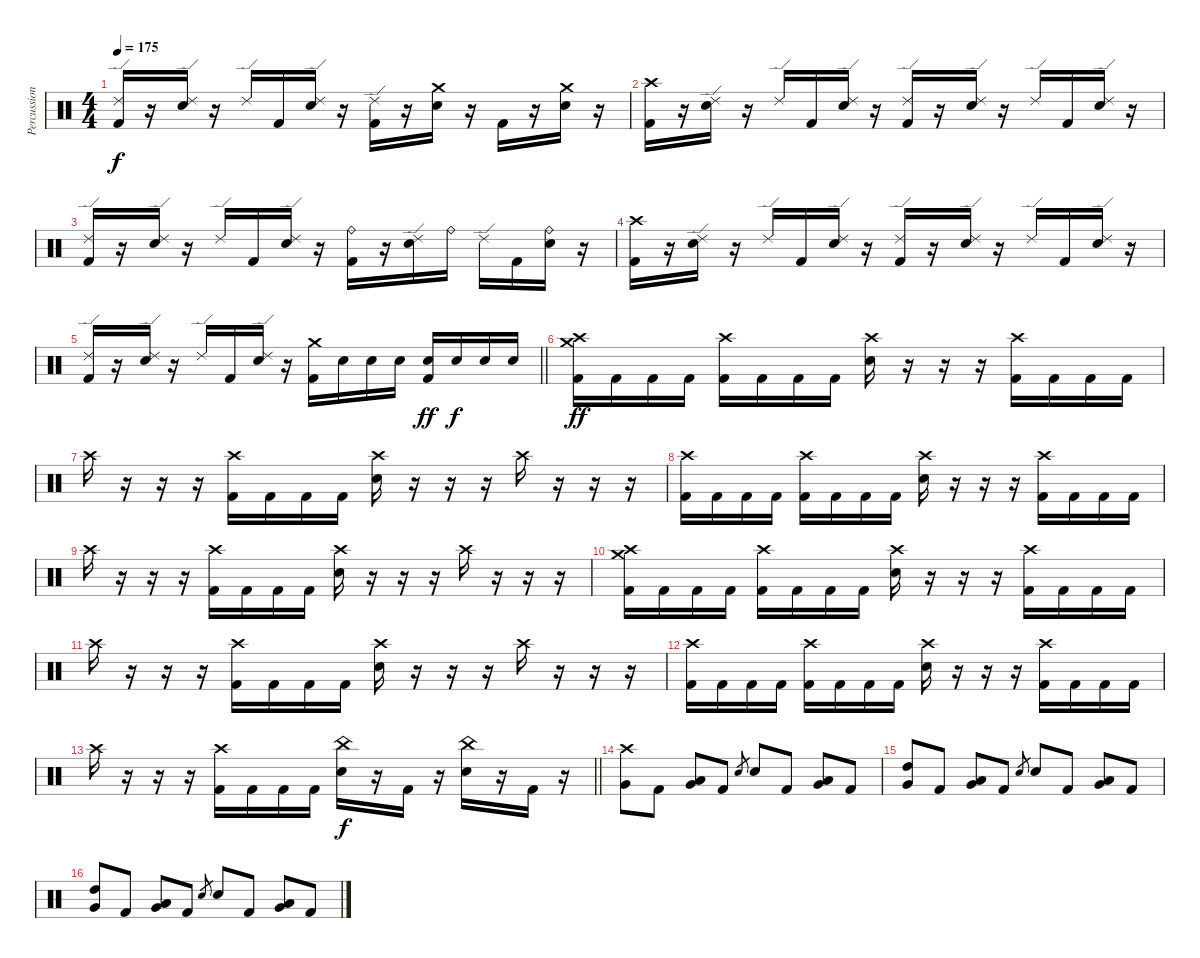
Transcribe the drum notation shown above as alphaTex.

\track ("Percussion" "Percussion") {instrument percussion}
\staff {score}
\articulation defaults
\ts (4 4)
\tempo 175
\clef neutral
\ks c
("Ride (edge) 2" "Kick (hit) 2").16{dy f} r.16 ("Ride (edge) 2" "Snare (hit) 2").16 r.16 "Ride (edge) 2".16 "Kick (hit) 2".16 ("Ride (edge) 2" "Snare (hit) 2").16 r.16 ("Ride (edge) 2" "Kick (hit) 2").16 r.16 ("Crash medium (hit)" "Snare (hit) 2").16 r.16 "Kick (hit) 2".16 r.16 ("Crash medium (hit)" "Snare (hit) 2").16 r.16 |
("Crash high (hit)" "Kick (hit) 2").16 r.16 ("Ride (edge) 2" "Snare (hit) 2").16 r.16 "Ride (edge) 2".16 "Kick (hit) 2".16 ("Ride (edge) 2" "Snare (hit) 2").16 r.16 ("Ride (edge) 2" "Kick (hit) 2").16 r.16 ("Ride (edge) 2" "Snare (hit) 2").16 r.16 "Ride (edge) 2".16 "Kick (hit) 2".16 ("Ride (edge) 2" "Snare (hit) 2").16 r.16 |
("Ride (edge) 2" "Kick (hit) 2").16 r.16 ("Ride (edge) 2" "Snare (hit) 2").16 r.16 "Ride (edge) 2".16 "Kick (hit) 2".16 ("Ride (edge) 2" "Snare (hit) 2").16 r.16 ("Ride (bell)" "Kick (hit) 2").16 r.16 ("Ride (edge) 2" "Snare (hit) 2").16 "Ride (bell)".16 "Ride (edge) 2".16 "Kick (hit) 2".16 ("Ride (bell)" "Snare (hit) 2").16 r.16 |
("Crash high (hit)" "Kick (hit) 2").16 r.16 ("Ride (edge) 2" "Snare (hit) 2").16 r.16 "Ride (edge) 2".16 "Kick (hit) 2".16 ("Ride (edge) 2" "Snare (hit) 2").16 r.16 ("Ride (edge) 2" "Kick (hit) 2").16 r.16 ("Ride (edge) 2" "Snare (hit) 2").16 r.16 "Ride (edge) 2".16 "Kick (hit) 2".16 ("Ride (edge) 2" "Snare (hit) 2").16 r.16 |
\barLineRight lightlight
("Ride (edge) 2" "Kick (hit) 2").16 r.16 ("Ride (edge) 2" "Snare (hit) 2").16 r.16 "Ride (edge) 2".16 "Kick (hit) 2".16 ("Ride (edge) 2" "Snare (hit) 2").16 r.16 ("Crash medium (hit)" "Kick (hit) 2").16 "Snare (hit) 2".16 "Snare (hit) 2".16 "Snare (hit) 2".16 ("Snare (hit) 2" "Kick (hit) 2").16{dy ff} "Snare (hit) 2".16{dy f} "Snare (hit) 2".16 "Snare (hit) 2".16 |
\section ("" "")
("Crash high (hit)" "Crash medium (hit)" "Kick (hit) 2").16{dy ff} "Kick (hit) 2".16 "Kick (hit) 2".16 "Kick (hit) 2".16 ("Crash high (hit)" "Kick (hit) 2").16 "Kick (hit) 2".16 "Kick (hit) 2".16 "Kick (hit) 2".16 ("Crash high (hit)" "Snare (hit) 2").16 r.16 r.16 r.16 ("Crash high (hit)" "Kick (hit) 2").16 "Kick (hit) 2".16 "Kick (hit) 2".16 "Kick (hit) 2".16 |
"Crash high (hit)".16 r.16 r.16 r.16 ("Crash high (hit)" "Kick (hit) 2").16 "Kick (hit) 2".16 "Kick (hit) 2".16 "Kick (hit) 2".16 ("Crash high (hit)" "Snare (hit) 2").16 r.16 r.16 r.16 "Crash high (hit)".16 r.16 r.16 r.16 |
("Crash high (hit)" "Kick (hit) 2").16 "Kick (hit) 2".16 "Kick (hit) 2".16 "Kick (hit) 2".16 ("Crash high (hit)" "Kick (hit) 2").16 "Kick (hit) 2".16 "Kick (hit) 2".16 "Kick (hit) 2".16 ("Crash high (hit)" "Snare (hit) 2").16 r.16 r.16 r.16 ("Crash high (hit)" "Kick (hit) 2").16 "Kick (hit) 2".16 "Kick (hit) 2".16 "Kick (hit) 2".16 |
"Crash high (hit)".16 r.16 r.16 r.16 ("Crash high (hit)" "Kick (hit) 2").16 "Kick (hit) 2".16 "Kick (hit) 2".16 "Kick (hit) 2".16 ("Crash high (hit)" "Snare (hit) 2").16 r.16 r.16 r.16 "Crash high (hit)".16 r.16 r.16 r.16 |
("Crash high (hit)" "Crash medium (hit)" "Kick (hit) 2").16 "Kick (hit) 2".16 "Kick (hit) 2".16 "Kick (hit) 2".16 ("Crash high (hit)" "Kick (hit) 2").16 "Kick (hit) 2".16 "Kick (hit) 2".16 "Kick (hit) 2".16 ("Crash high (hit)" "Snare (hit) 2").16 r.16 r.16 r.16 ("Crash high (hit)" "Kick (hit) 2").16 "Kick (hit) 2".16 "Kick (hit) 2".16 "Kick (hit) 2".16 |
"Crash high (hit)".16 r.16 r.16 r.16 ("Crash high (hit)" "Kick (hit) 2").16 "Kick (hit) 2".16 "Kick (hit) 2".16 "Kick (hit) 2".16 ("Crash high (hit)" "Snare (hit) 2").16 r.16 r.16 r.16 "Crash high (hit)".16 r.16 r.16 r.16 |
("Crash high (hit)" "Kick (hit) 2").16 "Kick (hit) 2".16 "Kick (hit) 2".16 "Kick (hit) 2".16 ("Crash high (hit)" "Kick (hit) 2").16 "Kick (hit) 2".16 "Kick (hit) 2".16 "Kick (hit) 2".16 ("Crash high (hit)" "Snare (hit) 2").16 r.16 r.16 r.16 ("Crash high (hit)" "Kick (hit) 2").16 "Kick (hit) 2".16 "Kick (hit) 2".16 "Kick (hit) 2".16 |
\barLineRight lightlight "Crash high (hit)".16
r.16 r.16 r.16 ("Crash high (hit)" "Kick (hit) 2").16 "Kick (hit) 2".16 "Kick (hit) 2".16 "Kick (hit) 2".16 ("China (hit)" "Snare (hit) 2").16{dy f} r.16 "Kick (hit) 2".16 r.16 ("China (hit)" "Snare (hit) 2").16 r.16 "Kick (hit) 2".16 r.16 |
\section ("" "")
("Crash high (hit)" "Very Low Tom (hit)").8 "Kick (hit) 2".8 ("Low Tom (hit)" "Very Low Tom (hit)").8 "Kick (hit) 2".8 "Snare (hit) 2".8{gr} "Snare (hit) 2".8 "Kick (hit) 2".8 ("Low Tom (hit)" "Very Low Tom (hit)").8 "Kick (hit) 2".8 |
("High Tom (hit)" "Very Low Tom (hit)").8 "Kick (hit) 2".8 ("Low Tom (hit)" "Very Low Tom (hit)").8 "Kick (hit) 2".8 "Snare (hit) 2".8{gr} "Snare (hit) 2".8 "Kick (hit) 2".8 ("Low Tom (hit)" "Very Low Tom (hit)").8 "Kick (hit) 2".8 |
("High Tom (hit)" "Very Low Tom (hit)").8 "Kick (hit) 2".8 ("Low Tom (hit)" "Very Low Tom (hit)").8 "Kick (hit) 2".8 "Snare (hit) 2".8{gr} "Snare (hit) 2".8 "Kick (hit) 2".8 ("Low Tom (hit)" "Very Low Tom (hit)").8 "Kick (hit) 2".8
